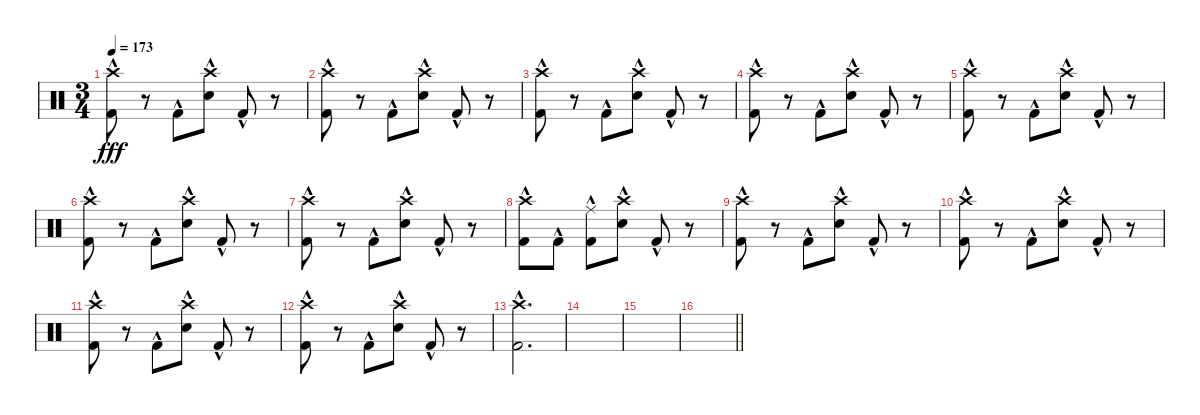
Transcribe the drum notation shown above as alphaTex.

\track (" " " ") {instrument percussion}
\staff {score}
\articulation defaults
\ts (3 4)
\tempo 173
\clef neutral
\ks c
("Crash high (hit)"{hac} "Kick (hit) 2"{hac}).8{dy fff} r.8 "Kick (hit) 2"{hac}.8 ("Crash high (hit)"{hac} "Electric Snare (hit)"{hac}).8 "Kick (hit) 2"{hac}.8 r.8 |
("Crash high (hit)"{hac} "Kick (hit) 2"{hac}).8 r.8 "Kick (hit) 2"{hac}.8 ("Crash high (hit)"{hac} "Electric Snare (hit)"{hac}).8 "Kick (hit) 2"{hac}.8 r.8 |
("Crash high (hit)"{hac} "Kick (hit) 2"{hac}).8 r.8 "Kick (hit) 2"{hac}.8 ("Crash high (hit)"{hac} "Electric Snare (hit)"{hac}).8 "Kick (hit) 2"{hac}.8 r.8 |
("Crash high (hit)"{hac} "Kick (hit) 2"{hac}).8 r.8 "Kick (hit) 2"{hac}.8 ("Crash high (hit)"{hac} "Electric Snare (hit)"{hac}).8 "Kick (hit) 2"{hac}.8 r.8 |
("Crash high (hit)"{hac} "Kick (hit) 2"{hac}).8 r.8 "Kick (hit) 2"{hac}.8 ("Crash high (hit)"{hac} "Electric Snare (hit)"{hac}).8 "Kick (hit) 2"{hac}.8 r.8 |
("Crash high (hit)"{hac} "Kick (hit) 2"{hac}).8 r.8 "Kick (hit) 2"{hac}.8 ("Crash high (hit)"{hac} "Electric Snare (hit)"{hac}).8 "Kick (hit) 2"{hac}.8 r.8 |
("Crash high (hit)"{hac} "Kick (hit) 2"{hac}).8 r.8 "Kick (hit) 2"{hac}.8 ("Crash high (hit)"{hac} "Electric Snare (hit)"{hac}).8 "Kick (hit) 2"{hac}.8 r.8 |
("Crash high (hit)"{hac} "Kick (hit) 2"{hac}).8 "Kick (hit) 2"{hac}.8 ("Ride (middle)"{hac} "Kick (hit) 2"{hac}).8 ("Crash high (hit)"{hac} "Electric Snare (hit)"{hac}).8 "Kick (hit) 2"{hac}.8 r.8 |
("Crash high (hit)"{hac} "Kick (hit) 2"{hac}).8 r.8 "Kick (hit) 2"{hac}.8 ("Crash high (hit)"{hac} "Electric Snare (hit)"{hac}).8 "Kick (hit) 2"{hac}.8 r.8 |
("Crash high (hit)"{hac} "Kick (hit) 2"{hac}).8 r.8 "Kick (hit) 2"{hac}.8 ("Crash high (hit)"{hac} "Electric Snare (hit)"{hac}).8 "Kick (hit) 2"{hac}.8 r.8 |
("Crash high (hit)"{hac} "Kick (hit) 2"{hac}).8 r.8 "Kick (hit) 2"{hac}.8 ("Crash high (hit)"{hac} "Electric Snare (hit)"{hac}).8 "Kick (hit) 2"{hac}.8 r.8 |
("Crash high (hit)"{hac} "Kick (hit) 2"{hac}).8 r.8 "Kick (hit) 2"{hac}.8 ("Crash high (hit)"{hac} "Electric Snare (hit)"{hac}).8 "Kick (hit) 2"{hac}.8 r.8 |
("Crash high (hit)"{hac} "Kick (hit) 2"{hac}).2{d} |
|
|
\barLineRight lightlight
